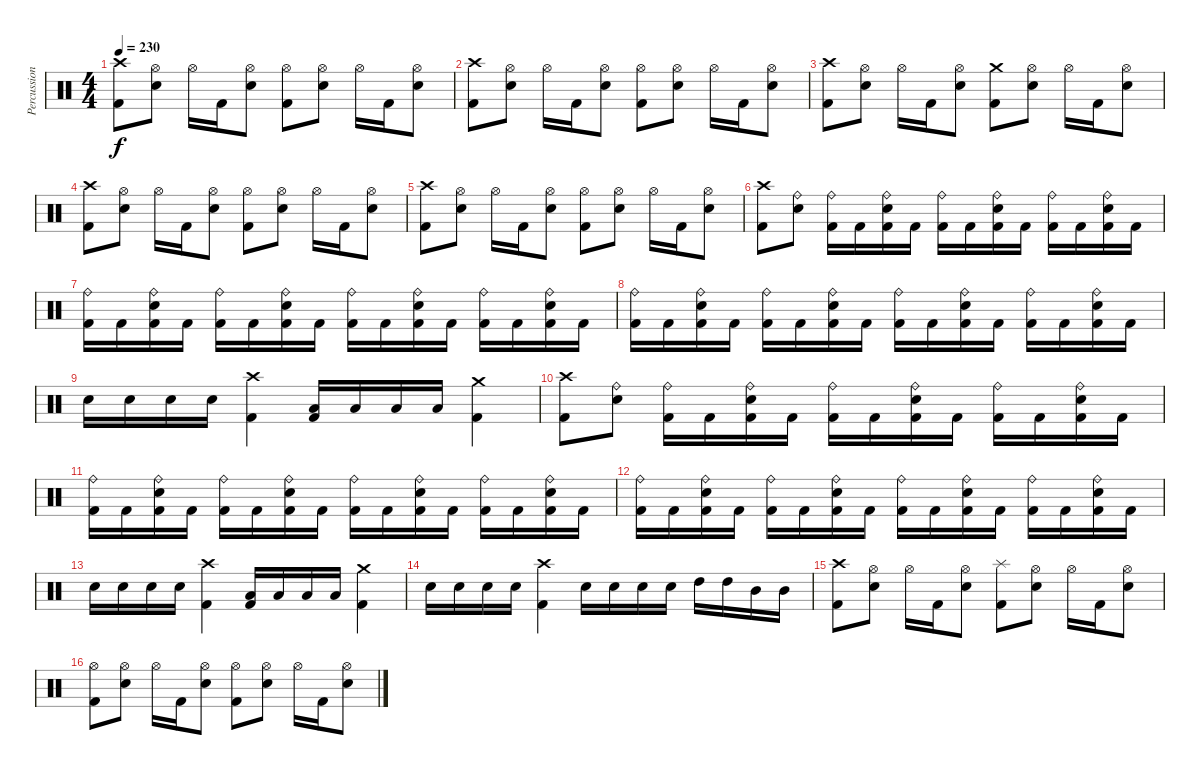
\track ("Percussion" "Percussion") {instrument percussion}
\staff {score}
\articulation defaults
\ts (4 4)
\tempo 230
\clef neutral
\ks c
("Crash high (hit)" "Kick (hit) 2").8{dy f} ("Hi-Hat (open)" "Electric Snare (hit)").8 "Hi-Hat (open)".16 "Kick (hit) 2".16 ("Hi-Hat (open)" "Electric Snare (hit)").8 ("Hi-Hat (open)" "Kick (hit) 2").8 ("Hi-Hat (open)" "Electric Snare (hit)").8 "Hi-Hat (open)".16 "Kick (hit) 2".16 ("Hi-Hat (open)" "Electric Snare (hit)").8 |
("Crash high (hit)" "Kick (hit) 2").8 ("Hi-Hat (open)" "Electric Snare (hit)").8 "Hi-Hat (open)".16 "Kick (hit) 2".16 ("Hi-Hat (open)" "Electric Snare (hit)").8 ("Hi-Hat (open)" "Kick (hit) 2").8 ("Hi-Hat (open)" "Electric Snare (hit)").8 "Hi-Hat (open)".16 "Kick (hit) 2".16 ("Hi-Hat (open)" "Electric Snare (hit)").8 |
("Crash high (hit)" "Kick (hit) 2").8 ("Hi-Hat (open)" "Electric Snare (hit)").8 "Hi-Hat (open)".16 "Kick (hit) 2".16 ("Hi-Hat (open)" "Electric Snare (hit)").8 ("Crash medium (hit)" "Kick (hit) 2").8 ("Hi-Hat (open)" "Electric Snare (hit)").8 "Hi-Hat (open)".16 "Kick (hit) 2".16 ("Hi-Hat (open)" "Electric Snare (hit)").8 |
("Crash high (hit)" "Kick (hit) 2").8 ("Hi-Hat (open)" "Electric Snare (hit)").8 "Hi-Hat (open)".16 "Kick (hit) 2".16 ("Hi-Hat (open)" "Electric Snare (hit)").8 ("Hi-Hat (open)" "Kick (hit) 2").8 ("Hi-Hat (open)" "Electric Snare (hit)").8 "Hi-Hat (open)".16 "Kick (hit) 2".16 ("Hi-Hat (open)" "Electric Snare (hit)").8 |
("Crash high (hit)" "Kick (hit) 2").8 ("Hi-Hat (open)" "Electric Snare (hit)").8 "Hi-Hat (open)".16 "Kick (hit) 2".16 ("Hi-Hat (open)" "Electric Snare (hit)").8 ("Hi-Hat (open)" "Kick (hit) 2").8 ("Hi-Hat (open)" "Electric Snare (hit)").8 "Hi-Hat (open)".16 "Kick (hit) 2".16 ("Hi-Hat (open)" "Electric Snare (hit)").8 |
("Crash high (hit)" "Kick (hit) 2").8 ("Ride (bell)" "Electric Snare (hit)").8 ("Ride (bell)" "Kick (hit) 2").16 "Kick (hit) 2".16 ("Ride (bell)" "Electric Snare (hit)" "Kick (hit) 2").16 "Kick (hit) 2".16 ("Ride (bell)" "Kick (hit) 2").16 "Kick (hit) 2".16 ("Ride (bell)" "Electric Snare (hit)" "Kick (hit) 2").16 "Kick (hit) 2".16 ("Ride (bell)" "Kick (hit) 2").16 "Kick (hit) 2".16 ("Ride (bell)" "Electric Snare (hit)" "Kick (hit) 2").16 "Kick (hit) 2".16 |
("Ride (bell)" "Kick (hit) 2").16 "Kick (hit) 2".16 ("Ride (bell)" "Electric Snare (hit)" "Kick (hit) 2").16 "Kick (hit) 2".16 ("Ride (bell)" "Kick (hit) 2").16 "Kick (hit) 2".16 ("Ride (bell)" "Electric Snare (hit)" "Kick (hit) 2").16 "Kick (hit) 2".16 ("Ride (bell)" "Kick (hit) 2").16 "Kick (hit) 2".16 ("Ride (bell)" "Electric Snare (hit)" "Kick (hit) 2").16 "Kick (hit) 2".16 ("Ride (bell)" "Kick (hit) 2").16 "Kick (hit) 2".16 ("Ride (bell)" "Electric Snare (hit)" "Kick (hit) 2").16 "Kick (hit) 2".16 |
("Ride (bell)" "Kick (hit) 2").16 "Kick (hit) 2".16 ("Ride (bell)" "Electric Snare (hit)" "Kick (hit) 2").16 "Kick (hit) 2".16 ("Ride (bell)" "Kick (hit) 2").16 "Kick (hit) 2".16 ("Ride (bell)" "Electric Snare (hit)" "Kick (hit) 2").16 "Kick (hit) 2".16 ("Ride (bell)" "Kick (hit) 2").16 "Kick (hit) 2".16 ("Ride (bell)" "Electric Snare (hit)" "Kick (hit) 2").16 "Kick (hit) 2".16 ("Ride (bell)" "Kick (hit) 2").16 "Kick (hit) 2".16 ("Ride (bell)" "Electric Snare (hit)" "Kick (hit) 2").16 "Kick (hit) 2".16 |
"Electric Snare (hit)".16 "Electric Snare (hit)".16 "Electric Snare (hit)".16 "Electric Snare (hit)".16 ("Crash high (hit)" "Kick (hit) 2").4 ("Low Tom (hit)" "Kick (hit) 2").16 "Low Tom (hit)".16 "Low Tom (hit)".16 "Low Tom (hit)".16 ("Crash medium (hit)" "Kick (hit) 2").4 |
("Crash high (hit)" "Kick (hit) 2").8 ("Ride (bell)" "Electric Snare (hit)").8 ("Ride (bell)" "Kick (hit) 2").16 "Kick (hit) 2".16 ("Ride (bell)" "Electric Snare (hit)" "Kick (hit) 2").16 "Kick (hit) 2".16 ("Ride (bell)" "Kick (hit) 2").16 "Kick (hit) 2".16 ("Ride (bell)" "Electric Snare (hit)" "Kick (hit) 2").16 "Kick (hit) 2".16 ("Ride (bell)" "Kick (hit) 2").16 "Kick (hit) 2".16 ("Ride (bell)" "Electric Snare (hit)" "Kick (hit) 2").16 "Kick (hit) 2".16 |
("Ride (bell)" "Kick (hit) 2").16 "Kick (hit) 2".16 ("Ride (bell)" "Electric Snare (hit)" "Kick (hit) 2").16 "Kick (hit) 2".16 ("Ride (bell)" "Kick (hit) 2").16 "Kick (hit) 2".16 ("Ride (bell)" "Electric Snare (hit)" "Kick (hit) 2").16 "Kick (hit) 2".16 ("Ride (bell)" "Kick (hit) 2").16 "Kick (hit) 2".16 ("Ride (bell)" "Electric Snare (hit)" "Kick (hit) 2").16 "Kick (hit) 2".16 ("Ride (bell)" "Kick (hit) 2").16 "Kick (hit) 2".16 ("Ride (bell)" "Electric Snare (hit)" "Kick (hit) 2").16 "Kick (hit) 2".16 |
("Ride (bell)" "Kick (hit) 2").16 "Kick (hit) 2".16 ("Ride (bell)" "Electric Snare (hit)" "Kick (hit) 2").16 "Kick (hit) 2".16 ("Ride (bell)" "Kick (hit) 2").16 "Kick (hit) 2".16 ("Ride (bell)" "Electric Snare (hit)" "Kick (hit) 2").16 "Kick (hit) 2".16 ("Ride (bell)" "Kick (hit) 2").16 "Kick (hit) 2".16 ("Ride (bell)" "Electric Snare (hit)" "Kick (hit) 2").16 "Kick (hit) 2".16 ("Ride (bell)" "Kick (hit) 2").16 "Kick (hit) 2".16 ("Ride (bell)" "Electric Snare (hit)" "Kick (hit) 2").16 "Kick (hit) 2".16 |
"Electric Snare (hit)".16 "Electric Snare (hit)".16 "Electric Snare (hit)".16 "Electric Snare (hit)".16 ("Crash high (hit)" "Kick (hit) 2").4 ("Low Tom (hit)" "Kick (hit) 2").16 "Low Tom (hit)".16 "Low Tom (hit)".16 "Low Tom (hit)".16 ("Crash medium (hit)" "Kick (hit) 2").4 |
"Electric Snare (hit)".16 "Electric Snare (hit)".16 "Electric Snare (hit)".16 "Electric Snare (hit)".16 ("Crash high (hit)" "Kick (hit) 2").4 "Electric Snare (hit)".16 "Electric Snare (hit)".16 "Electric Snare (hit)".16 "Electric Snare (hit)".16 "High Tom (hit)".16 "High Tom (hit)".16 "Mid Tom (hit)".16 "Mid Tom (hit)".16 |
("Crash high (hit)" "Kick (hit) 2").8 ("Hi-Hat (open)" "Electric Snare (hit)").8 "Hi-Hat (open)".16 "Kick (hit) 2".16 ("Hi-Hat (open)" "Electric Snare (hit)").8 ("Splash (hit)" "Kick (hit) 2").8 ("Hi-Hat (open)" "Electric Snare (hit)").8 "Hi-Hat (open)".16 "Kick (hit) 2".16 ("Hi-Hat (open)" "Electric Snare (hit)").8 |
("Hi-Hat (open)" "Kick (hit) 2").8 ("Hi-Hat (open)" "Electric Snare (hit)").8 "Hi-Hat (open)".16 "Kick (hit) 2".16 ("Hi-Hat (open)" "Electric Snare (hit)").8 ("Hi-Hat (open)" "Kick (hit) 2").8 ("Hi-Hat (open)" "Electric Snare (hit)").8 "Hi-Hat (open)".16 "Kick (hit) 2".16 ("Hi-Hat (open)" "Electric Snare (hit)").8
